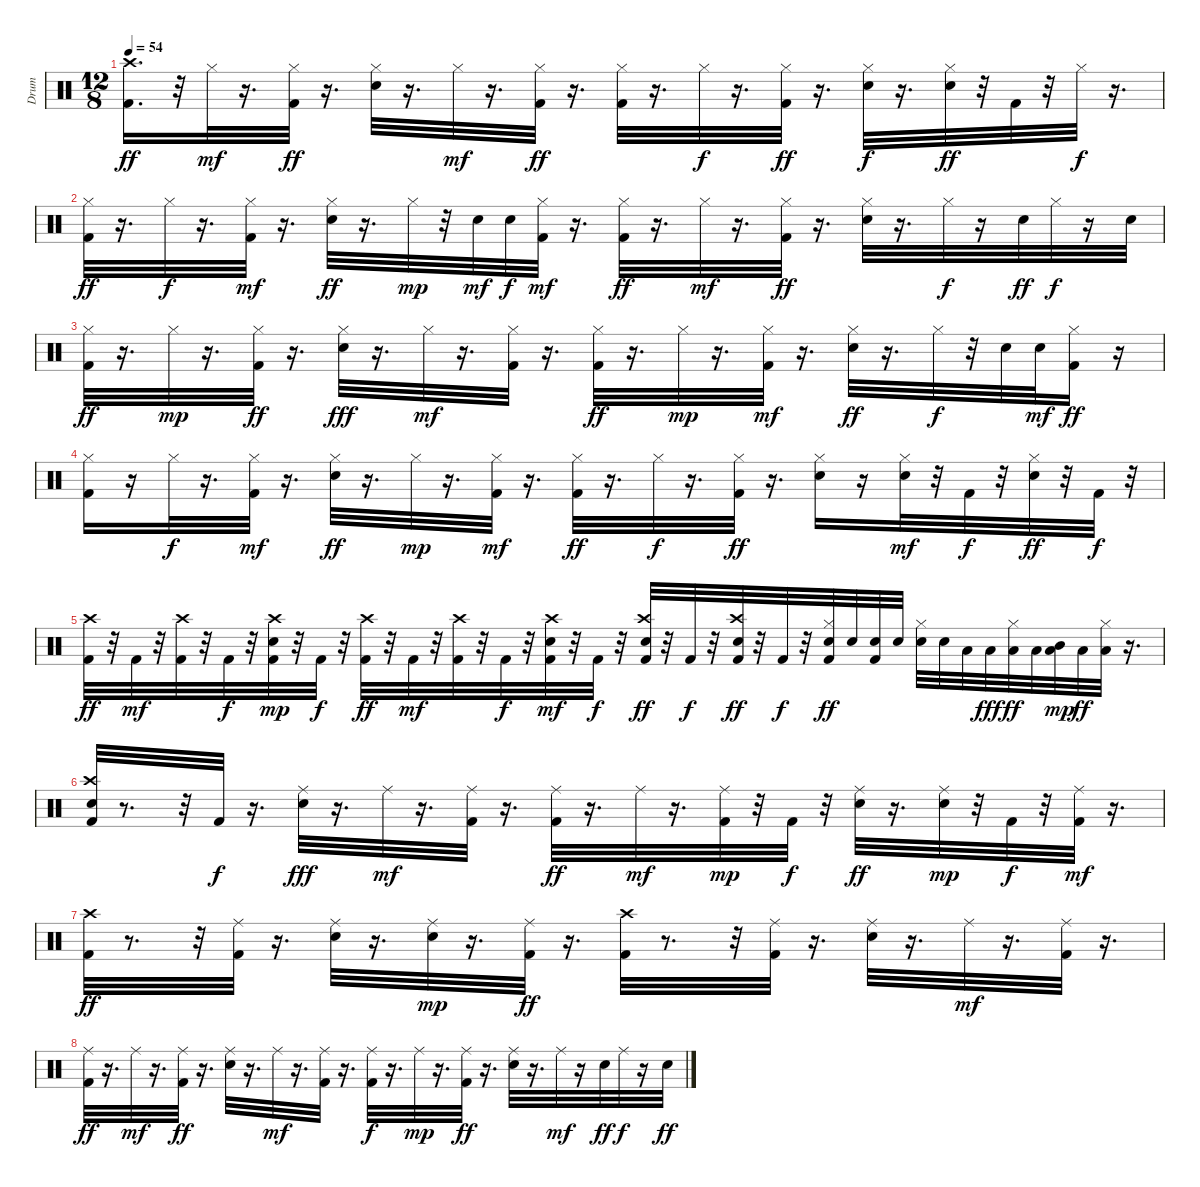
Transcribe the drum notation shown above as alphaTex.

\track ("Drum" "Drum") {instrument percussion}
\staff {score}
\articulation defaults
\ts (12 8)
\tempo 54
\clef neutral
\ks c
("Kick (hit) 2" "Crash high (hit)").16{d dy ff} r.32 "Hi-Hat (closed)".32{dy mf} r.16{d} ("Kick (hit) 2" "Hi-Hat (closed)").32{dy ff} r.16{d} ("Hi-Hat (closed)" "Electric Snare (hit)").32 r.16{d} "Hi-Hat (closed)".32{dy mf} r.16{d} ("Hi-Hat (closed)" "Kick (hit) 2").32{dy ff} r.16{d} ("Kick (hit) 2" "Hi-Hat (closed)").32 r.16{d} "Hi-Hat (closed)".32{dy f} r.16{d} ("Hi-Hat (closed)" "Kick (hit) 2").32{dy ff} r.16{d} ("Hi-Hat (closed)" "Electric Snare (hit)").32{dy f} r.16{d} ("Electric Snare (hit)" "Hi-Hat (closed)").32{dy ff} r.32 "Kick (hit) 2".32 r.32 "Hi-Hat (closed)".32{dy f} r.16{d} |
("Hi-Hat (closed)" "Kick (hit) 2").32{dy ff} r.16{d} "Hi-Hat (closed)".32{dy f} r.16{d} ("Kick (hit) 2" "Hi-Hat (closed)").32{dy mf} r.16{d} ("Electric Snare (hit)" "Hi-Hat (closed)").32{dy ff} r.16{d} "Hi-Hat (closed)".32{dy mp} r.32 "Electric Snare (hit)".32{dy mf} "Electric Snare (hit)".32{dy f} ("Kick (hit) 2" "Hi-Hat (closed)").32{dy mf} r.16{d} ("Kick (hit) 2" "Hi-Hat (closed)").32{dy ff} r.16{d} "Hi-Hat (closed)".32{dy mf} r.16{d} ("Kick (hit) 2" "Hi-Hat (closed)").32{dy ff} r.16{d} ("Electric Snare (hit)" "Hi-Hat (closed)").32 r.16{d} "Hi-Hat (closed)".32{dy f} r.16 "Electric Snare (hit)".32{dy ff} "Hi-Hat (closed)".32{dy f} r.16 "Electric Snare (hit)".32 |
("Kick (hit) 2" "Hi-Hat (closed)").32{dy ff} r.16{d} "Hi-Hat (closed)".32{dy mp} r.16{d} ("Kick (hit) 2" "Hi-Hat (closed)").32{dy ff} r.16{d} ("Electric Snare (hit)" "Hi-Hat (closed)").32{dy fff} r.16{d} "Hi-Hat (closed)".32{dy mf} r.16{d} ("Kick (hit) 2" "Hi-Hat (closed)").32 r.16{d} ("Kick (hit) 2" "Hi-Hat (closed)").32{dy ff} r.16{d} "Hi-Hat (closed)".32{dy mp} r.16{d} ("Kick (hit) 2" "Hi-Hat (closed)").32{dy mf} r.16{d} ("Electric Snare (hit)" "Hi-Hat (closed)").32{dy ff} r.16{d} "Hi-Hat (closed)".32{dy f} r.32 "Electric Snare (hit)".32 "Electric Snare (hit)".32{dy mf} ("Kick (hit) 2" "Hi-Hat (closed)").16{dy ff} r.16 |
("Kick (hit) 2" "Hi-Hat (closed)").16 r.16 "Hi-Hat (closed)".32{dy f} r.16{d} ("Kick (hit) 2" "Hi-Hat (closed)").32{dy mf} r.16{d} ("Electric Snare (hit)" "Hi-Hat (closed)").32{dy ff} r.16{d} "Hi-Hat (closed)".32{dy mp} r.16{d} ("Kick (hit) 2" "Hi-Hat (closed)").32{dy mf} r.16{d} ("Kick (hit) 2" "Hi-Hat (closed)").32{dy ff} r.16{d} "Hi-Hat (closed)".32{dy f} r.16{d} ("Kick (hit) 2" "Hi-Hat (closed)").32{dy ff} r.16{d} ("Electric Snare (hit)" "Hi-Hat (closed)").16 r.16 ("Electric Snare (hit)" "Hi-Hat (closed)").32{dy mf} r.32 "Kick (hit) 2".32{dy f} r.32 ("Electric Snare (hit)" "Hi-Hat (closed)").32{dy ff} r.32 "Kick (hit) 2".32{dy f} r.32 |
("Kick (hit) 2" "Crash high (hit)").32{dy ff} r.32 "Kick (hit) 2".32{dy mf} r.32 ("Kick (hit) 2" "Crash high (hit)").32 r.32 "Kick (hit) 2".32{dy f} r.32 ("Electric Snare (hit)" "Kick (hit) 2" "Crash high (hit)").32{dy mp} r.32 "Kick (hit) 2".32{dy f} r.32 ("Crash high (hit)" "Kick (hit) 2").32{dy ff} r.32 "Kick (hit) 2".32{dy mf} r.32 ("Kick (hit) 2" "Crash high (hit)").32 r.32 "Kick (hit) 2".32{dy f} r.32 ("Electric Snare (hit)" "Kick (hit) 2" "Crash high (hit)").32{dy mf} r.32 "Kick (hit) 2".32{dy f} r.32 ("Kick (hit) 2" "Electric Snare (hit)" "Crash high (hit)").32{dy ff} r.32 "Kick (hit) 2".32{dy f} r.32 ("Kick (hit) 2" "Electric Snare (hit)" "Crash high (hit)").32{dy ff} r.32 "Kick (hit) 2".32{dy f} r.32 ("Kick (hit) 2" "Electric Snare (hit)" "Hi-Hat (closed)").32{dy ff} "Electric Snare (hit)".32 ("Kick (hit) 2" "Electric Snare (hit)").32 "Electric Snare (hit)".32 ("Electric Snare (hit)" "Hi-Hat (closed)").32 "Electric Snare (hit)".32 "Low Tom (hit)".32 "Low Tom (hit)".32{dy fff} ("Low Tom (hit)" "Hi-Hat (closed)").32{dy ff} "Low Tom (hit)".32 ("Low Tom (hit)" "Mid Tom (hit)").32{dy mp} "Low Tom (hit)".32{dy ff} ("Low Tom (hit)" "Hi-Hat (closed)").32 r.16{d} |
("Crash high (hit)" "Electric Snare (hit)" "Kick (hit) 2").32 r.8{d} r.32 "Kick (hit) 2".32{dy f} r.16{d} ("Ride (middle)" "Electric Snare (hit)").32{dy fff} r.16{d} "Ride (middle)".32{dy mf} r.16{d} ("Ride (middle)" "Kick (hit) 2").32 r.16{d} ("Ride (middle)" "Kick (hit) 2").32{dy ff} r.16{d} "Ride (middle)".32{dy mf} r.16{d} ("Ride (middle)" "Kick (hit) 2").32{dy mp} r.32 "Kick (hit) 2".32{dy f} r.32 ("Ride (middle)" "Electric Snare (hit)").32{dy ff} r.16{d} ("Electric Snare (hit)" "Ride (middle)").32{dy mp} r.32 "Kick (hit) 2".32{dy f} r.32 ("Ride (middle)" "Kick (hit) 2").32{dy mf} r.16{d} |
("Crash high (hit)" "Kick (hit) 2").32{dy ff} r.8{d} r.32 ("Ride (middle)" "Kick (hit) 2").32 r.16{d} ("Ride (middle)" "Electric Snare (hit)").32 r.16{d} ("Electric Snare (hit)" "Ride (middle)").32{dy mp} r.16{d} ("Ride (middle)" "Kick (hit) 2").32{dy ff} r.16{d} ("Crash high (hit)" "Kick (hit) 2").32 r.8{d} r.32 ("Ride (middle)" "Kick (hit) 2").32 r.16{d} ("Electric Snare (hit)" "Ride (middle)").32 r.16{d} "Ride (middle)".32{dy mf} r.16{d} ("Ride (middle)" "Kick (hit) 2").32 r.16{d} |
("Ride (middle)" "Kick (hit) 2").32{dy ff} r.16{d} "Ride (middle)".32{dy mf} r.16{d} ("Ride (middle)" "Kick (hit) 2").32{dy ff} r.16{d} ("Ride (middle)" "Electric Snare (hit)").32 r.16{d} "Ride (middle)".32{dy mf} r.16{d} ("Ride (middle)" "Kick (hit) 2").32 r.16{d} ("Ride (middle)" "Kick (hit) 2").32{dy f} r.16{d} "Ride (middle)".32{dy mp} r.16{d} ("Ride (middle)" "Kick (hit) 2").32{dy ff} r.16{d} ("Electric Snare (hit)" "Ride (middle)").32 r.16{d} "Ride (middle)".32{dy mf} r.16 "Electric Snare (hit)".32{dy ff} "Ride (middle)".32{dy f} r.16 "Electric Snare (hit)".32{dy ff}
